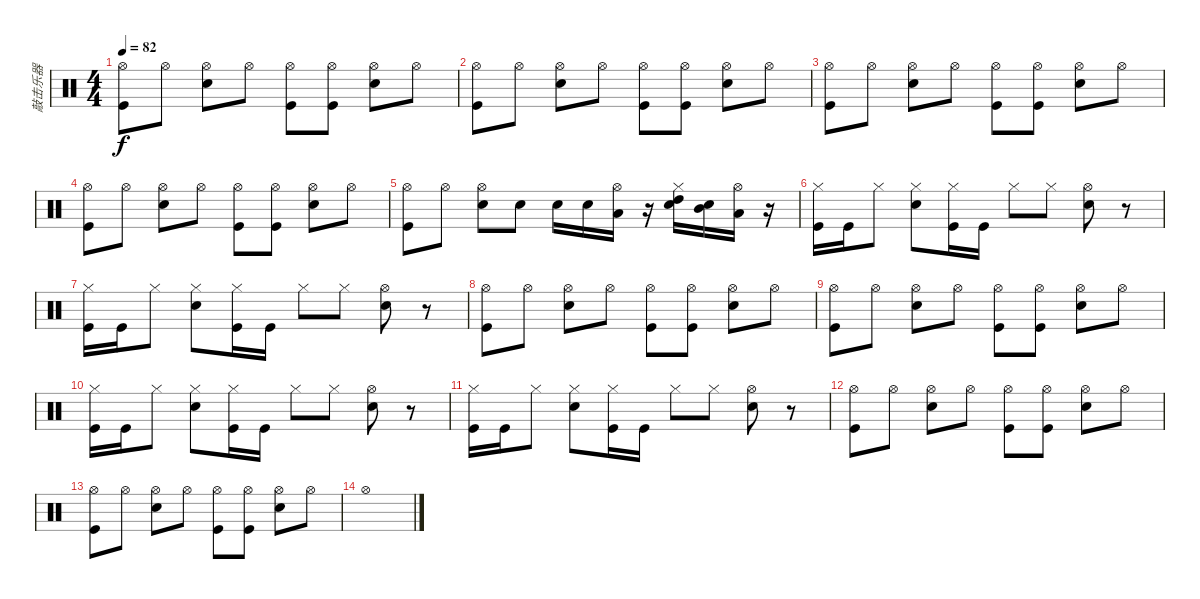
\track ("敲击乐器" "敲击乐器") {instrument percussion}
\staff {score}
\articulation defaults
\ts (4 4)
\tempo 82
\clef neutral
\ks c
("Hi-Hat (open)" "Kick (hit)").8{dy f} "Hi-Hat (open)".8 ("Hi-Hat (open)" "Snare (hit) 2").8 "Hi-Hat (open)".8 ("Hi-Hat (open)" "Kick (hit)").8 ("Hi-Hat (open)" "Kick (hit)").8 ("Hi-Hat (open)" "Snare (hit) 2").8 "Hi-Hat (open)".8 |
("Hi-Hat (open)" "Kick (hit)").8 "Hi-Hat (open)".8 ("Hi-Hat (open)" "Snare (hit) 2").8 "Hi-Hat (open)".8 ("Hi-Hat (open)" "Kick (hit)").8 ("Hi-Hat (open)" "Kick (hit)").8 ("Hi-Hat (open)" "Snare (hit) 2").8 "Hi-Hat (open)".8 |
("Hi-Hat (open)" "Kick (hit)").8 "Hi-Hat (open)".8 ("Hi-Hat (open)" "Snare (hit) 2").8 "Hi-Hat (open)".8 ("Hi-Hat (open)" "Kick (hit)").8 ("Hi-Hat (open)" "Kick (hit)").8 ("Hi-Hat (open)" "Snare (hit) 2").8 "Hi-Hat (open)".8 |
("Hi-Hat (open)" "Kick (hit)").8 "Hi-Hat (open)".8 ("Hi-Hat (open)" "Snare (hit) 2").8 "Hi-Hat (open)".8 ("Hi-Hat (open)" "Kick (hit)").8 ("Hi-Hat (open)" "Kick (hit)").8 ("Hi-Hat (open)" "Snare (hit) 2").8 "Hi-Hat (open)".8 |
("Hi-Hat (open)" "Kick (hit)").8 "Hi-Hat (open)".8 ("Hi-Hat (open)" "Snare (hit) 2").8 "Snare (hit) 2".8 "Snare (hit) 2".16 "Snare (hit) 2".16 ("Hi-Hat (open)" "Low Tom (hit)").16 r.16 ("Hi-Hat (closed)" "High Tom (hit)" "Snare (hit) 2").16 ("Mid Tom (hit)" "Snare (hit) 2").16 ("Hi-Hat (open)" "Low Tom (hit)").16 r.16 |
("Hi-Hat (closed)" "Kick (hit)").16 "Kick (hit)".16 "Hi-Hat (closed)".8 ("Snare (hit) 2" "Hi-Hat (closed)").8 ("Kick (hit)" "Hi-Hat (closed)").16 "Kick (hit)".16 "Hi-Hat (closed)".8 "Hi-Hat (closed)".8 ("Snare (hit) 2" "Hi-Hat (open)").8 r.8 |
("Hi-Hat (closed)" "Kick (hit)").16 "Kick (hit)".16 "Hi-Hat (closed)".8 ("Snare (hit) 2" "Hi-Hat (closed)").8 ("Kick (hit)" "Hi-Hat (closed)").16 "Kick (hit)".16 "Hi-Hat (closed)".8 "Hi-Hat (closed)".8 ("Snare (hit) 2" "Hi-Hat (open)").8 r.8 |
("Hi-Hat (open)" "Kick (hit)").8 "Hi-Hat (open)".8 ("Hi-Hat (open)" "Snare (hit) 2").8 "Hi-Hat (open)".8 ("Hi-Hat (open)" "Kick (hit)").8 ("Hi-Hat (open)" "Kick (hit)").8 ("Hi-Hat (open)" "Snare (hit) 2").8 "Hi-Hat (open)".8 |
("Hi-Hat (open)" "Kick (hit)").8 "Hi-Hat (open)".8 ("Hi-Hat (open)" "Snare (hit) 2").8 "Hi-Hat (open)".8 ("Hi-Hat (open)" "Kick (hit)").8 ("Hi-Hat (open)" "Kick (hit)").8 ("Hi-Hat (open)" "Snare (hit) 2").8 "Hi-Hat (open)".8 |
("Hi-Hat (closed)" "Kick (hit)").16 "Kick (hit)".16 "Hi-Hat (closed)".8 ("Snare (hit) 2" "Hi-Hat (closed)").8 ("Kick (hit)" "Hi-Hat (closed)").16 "Kick (hit)".16 "Hi-Hat (closed)".8 "Hi-Hat (closed)".8 ("Snare (hit) 2" "Hi-Hat (open)").8 r.8 |
("Hi-Hat (closed)" "Kick (hit)").16 "Kick (hit)".16 "Hi-Hat (closed)".8 ("Snare (hit) 2" "Hi-Hat (closed)").8 ("Kick (hit)" "Hi-Hat (closed)").16 "Kick (hit)".16 "Hi-Hat (closed)".8 "Hi-Hat (closed)".8 ("Snare (hit) 2" "Hi-Hat (open)").8 r.8 |
("Hi-Hat (open)" "Kick (hit)").8 "Hi-Hat (open)".8 ("Hi-Hat (open)" "Snare (hit) 2").8 "Hi-Hat (open)".8 ("Hi-Hat (open)" "Kick (hit)").8 ("Hi-Hat (open)" "Kick (hit)").8 ("Hi-Hat (open)" "Snare (hit) 2").8 "Hi-Hat (open)".8 |
("Hi-Hat (open)" "Kick (hit)").8 "Hi-Hat (open)".8 ("Hi-Hat (open)" "Snare (hit) 2").8 "Hi-Hat (open)".8 ("Hi-Hat (open)" "Kick (hit)").8 ("Hi-Hat (open)" "Kick (hit)").8 ("Hi-Hat (open)" "Snare (hit) 2").8 "Hi-Hat (open)".8 |
"Hi-Hat (open)".1
